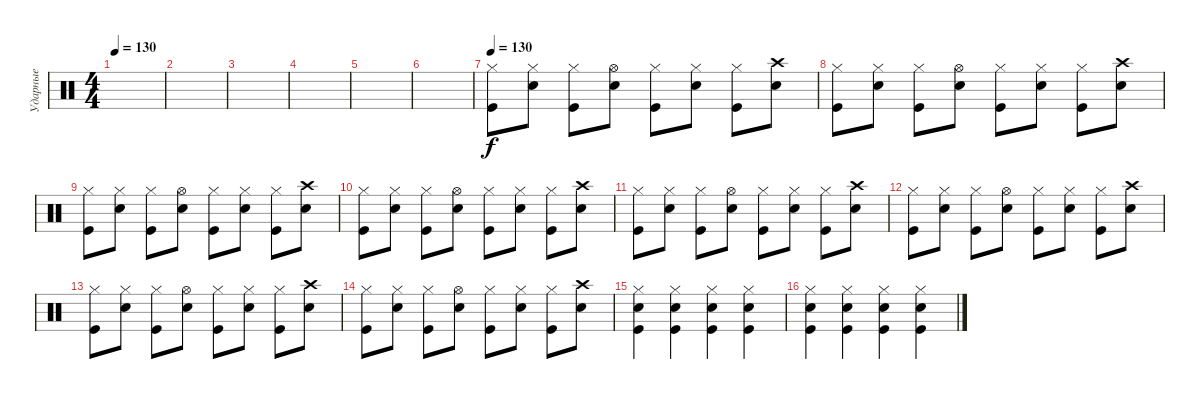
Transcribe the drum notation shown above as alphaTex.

\track ("Ударные" "Ударные") {instrument percussion}
\staff {score}
\articulation defaults
\ts (4 4)
\tempo 130
\clef neutral
\ks c
|
|
|
|
|
|
\tempo 130
("Hi-Hat (closed)" "Kick (hit)").8 ("Hi-Hat (closed)" "Snare (hit) 2").8 ("Hi-Hat (closed)" "Kick (hit)").8 ("Hi-Hat (open)" "Snare (hit) 2").8 ("Hi-Hat (closed)" "Kick (hit)").8 ("Hi-Hat (closed)" "Snare (hit) 2").8 ("Hi-Hat (closed)" "Kick (hit)").8 ("Crash high (hit)" "Snare (hit) 2").8 |
("Hi-Hat (closed)" "Kick (hit)").8 ("Hi-Hat (closed)" "Snare (hit) 2").8 ("Hi-Hat (closed)" "Kick (hit)").8 ("Hi-Hat (open)" "Snare (hit) 2").8 ("Hi-Hat (closed)" "Kick (hit)").8 ("Hi-Hat (closed)" "Snare (hit) 2").8 ("Hi-Hat (closed)" "Kick (hit)").8 ("Crash high (hit)" "Snare (hit) 2").8 |
("Hi-Hat (closed)" "Kick (hit)").8 ("Hi-Hat (closed)" "Snare (hit) 2").8 ("Hi-Hat (closed)" "Kick (hit)").8 ("Hi-Hat (open)" "Snare (hit) 2").8 ("Hi-Hat (closed)" "Kick (hit)").8 ("Hi-Hat (closed)" "Snare (hit) 2").8 ("Hi-Hat (closed)" "Kick (hit)").8 ("Crash high (hit)" "Snare (hit) 2").8 |
("Hi-Hat (closed)" "Kick (hit)").8 ("Hi-Hat (closed)" "Snare (hit) 2").8 ("Hi-Hat (closed)" "Kick (hit)").8 ("Hi-Hat (open)" "Snare (hit) 2").8 ("Hi-Hat (closed)" "Kick (hit)").8 ("Hi-Hat (closed)" "Snare (hit) 2").8 ("Hi-Hat (closed)" "Kick (hit)").8 ("Crash high (hit)" "Snare (hit) 2").8 |
("Hi-Hat (closed)" "Kick (hit)").8 ("Hi-Hat (closed)" "Snare (hit) 2").8 ("Hi-Hat (closed)" "Kick (hit)").8 ("Hi-Hat (open)" "Snare (hit) 2").8 ("Hi-Hat (closed)" "Kick (hit)").8 ("Hi-Hat (closed)" "Snare (hit) 2").8 ("Hi-Hat (closed)" "Kick (hit)").8 ("Crash high (hit)" "Snare (hit) 2").8 |
("Hi-Hat (closed)" "Kick (hit)").8 ("Hi-Hat (closed)" "Snare (hit) 2").8 ("Hi-Hat (closed)" "Kick (hit)").8 ("Hi-Hat (open)" "Snare (hit) 2").8 ("Hi-Hat (closed)" "Kick (hit)").8 ("Hi-Hat (closed)" "Snare (hit) 2").8 ("Hi-Hat (closed)" "Kick (hit)").8 ("Crash high (hit)" "Snare (hit) 2").8 |
("Hi-Hat (closed)" "Kick (hit)").8 ("Hi-Hat (closed)" "Snare (hit) 2").8 ("Hi-Hat (closed)" "Kick (hit)").8 ("Hi-Hat (open)" "Snare (hit) 2").8 ("Hi-Hat (closed)" "Kick (hit)").8 ("Hi-Hat (closed)" "Snare (hit) 2").8 ("Hi-Hat (closed)" "Kick (hit)").8 ("Crash high (hit)" "Snare (hit) 2").8 |
("Hi-Hat (closed)" "Kick (hit)").8 ("Hi-Hat (closed)" "Snare (hit) 2").8 ("Hi-Hat (closed)" "Kick (hit)").8 ("Hi-Hat (open)" "Snare (hit) 2").8 ("Hi-Hat (closed)" "Kick (hit)").8 ("Hi-Hat (closed)" "Snare (hit) 2").8 ("Hi-Hat (closed)" "Kick (hit)").8 ("Crash high (hit)" "Snare (hit) 2").8 |
("Hi-Hat (closed)" "Snare (hit) 2" "Kick (hit)").4 ("Hi-Hat (closed)" "Snare (hit) 2" "Kick (hit)").4 ("Hi-Hat (closed)" "Snare (hit) 2" "Kick (hit)").4 ("Hi-Hat (closed)" "Snare (hit) 2" "Kick (hit)").4 |
("Hi-Hat (closed)" "Snare (hit) 2" "Kick (hit)").4 ("Hi-Hat (closed)" "Snare (hit) 2" "Kick (hit)").4 ("Hi-Hat (closed)" "Snare (hit) 2" "Kick (hit)").4 ("Hi-Hat (closed)" "Snare (hit) 2" "Kick (hit)").4
